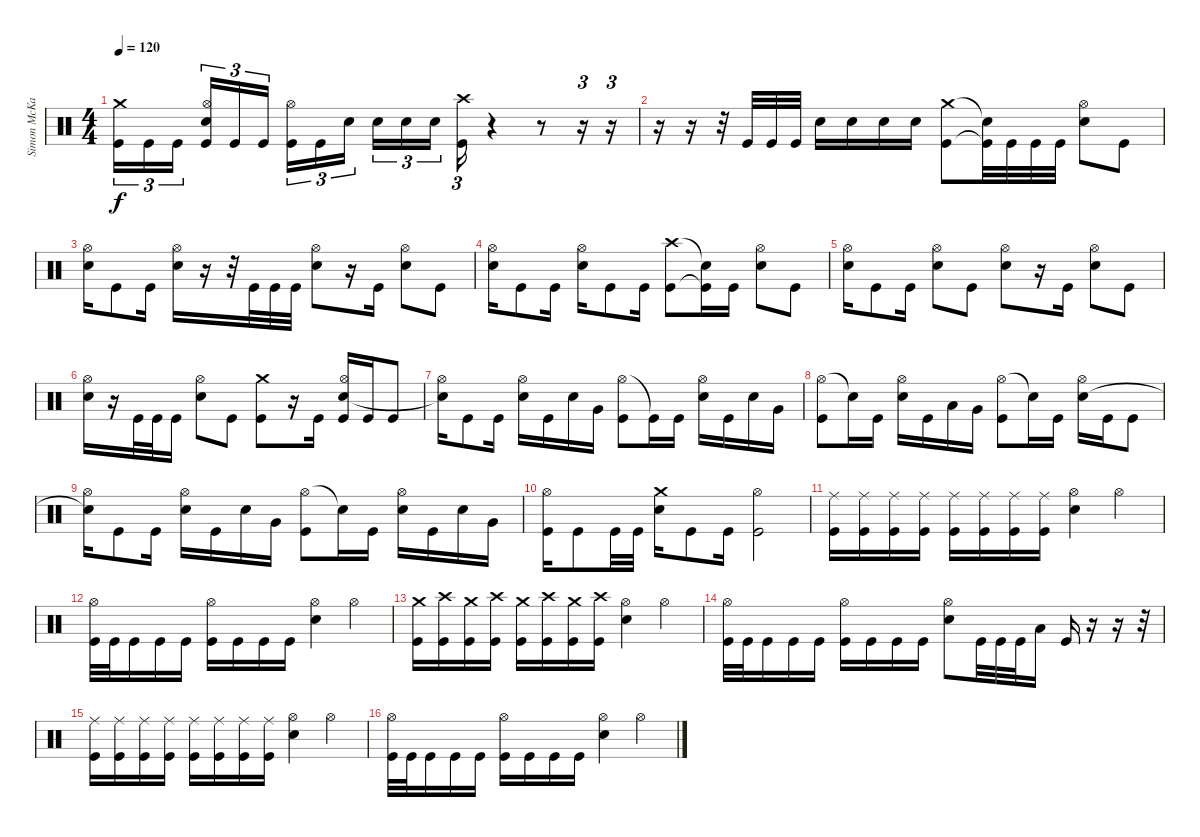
\track ("Simon McKay" "Simon McKa") {instrument percussion}
\staff {score}
\articulation defaults
\ts (4 4)
\tempo 120
\clef neutral
\ks c
("Crash medium (hit)" "Kick (hit)").16{tu (3 2) dy f} "Kick (hit)".16{tu (3 2)} "Kick (hit)".16{tu (3 2) beam splitsecondary} ("Hi-Hat (open)" "Electric Snare (hit)" "Kick (hit)").16{tu (3 2)} "Kick (hit)".16{tu (3 2)} "Kick (hit)".16{tu (3 2)} ("Hi-Hat (open)" "Kick (hit)").16{tu (3 2)} "Kick (hit)".16{tu (3 2)} "Electric Snare (hit)".16{tu (3 2) beam splitsecondary} "Electric Snare (hit)".16{tu (3 2)} "Electric Snare (hit)".16{tu (3 2)} "Electric Snare (hit)".16{tu (3 2)} ("Crash high (hit)" "Kick (hit)").16{tu (3 2)} r.4 r.8 r.16{tu (3 2)} r.16{tu (3 2)} |
r.16 r.16 r.32 "Kick (hit)".32 "Kick (hit)".32 "Kick (hit)".32 "Electric Snare (hit)".16 "Electric Snare (hit)".16 "Electric Snare (hit)".16 "Electric Snare (hit)".16 ("Crash medium (hit)" "Kick (hit)").8 ("Snare (hit)"{t} "Kick (hit)"{t}).32 "Kick (hit)".32 "Kick (hit)".32 "Kick (hit)".32 ("Hi-Hat (open)" "Electric Snare (hit)").8 "Kick (hit)".8 |
("Hi-Hat (open)" "Electric Snare (hit)").16 "Kick (hit)".8 "Kick (hit)".16 ("Hi-Hat (open)" "Electric Snare (hit)").16 r.16 r.32 "Kick (hit)".32 "Kick (hit)".32 "Kick (hit)".32 ("Hi-Hat (open)" "Electric Snare (hit)").8 r.16 "Kick (hit)".16 ("Hi-Hat (open)" "Electric Snare (hit)").8 "Kick (hit)".8 |
("Hi-Hat (open)" "Electric Snare (hit)").16 "Kick (hit)".8 "Kick (hit)".16 ("Hi-Hat (open)" "Electric Snare (hit)").16 "Kick (hit)".8 "Kick (hit)".16 ("Crash high (hit)" "Kick (hit)").8 ("Snare (hit)"{t} "Kick (hit)"{t}).16 "Kick (hit)".16 ("Hi-Hat (open)" "Electric Snare (hit)").8 "Kick (hit)".8 |
("Hi-Hat (open)" "Electric Snare (hit)").16 "Kick (hit)".8 "Kick (hit)".16 ("Hi-Hat (open)" "Electric Snare (hit)").8 "Kick (hit)".8 ("Hi-Hat (open)" "Electric Snare (hit)").8 r.16 "Kick (hit)".16 ("Hi-Hat (open)" "Electric Snare (hit)").8 "Kick (hit)".8 |
("Hi-Hat (open)" "Electric Snare (hit)").16 r.16 "Kick (hit)".32 "Kick (hit)".32 "Kick (hit)".16 ("Hi-Hat (open)" "Electric Snare (hit)").8 "Kick (hit)".8 ("Crash medium (hit)" "Kick (hit)").8 r.16 "Kick (hit)".16 ("Hi-Hat (open)" "Electric Snare (hit)" "Kick (hit)").16 "Kick (hit)".16 "Kick (hit)".8 |
("Hi-Hat (open)" "Snare (hit)"{t}).16 "Kick (hit)".8 "Kick (hit)".16 ("Hi-Hat (open)" "Electric Snare (hit)").16 "Kick (hit)".16 "Electric Snare (hit)".16 "Very Low Tom (hit)".16 ("Hi-Hat (open)" "Kick (hit)").8 "Kick (hit)"{t}.16 "Kick (hit)".16 ("Hi-Hat (open)" "Electric Snare (hit)").16 "Kick (hit)".16 "Electric Snare (hit)".16 "Very Low Tom (hit)".16 |
("Hi-Hat (open)" "Kick (hit)").8 "Snare (hit)"{t}.16 "Kick (hit)".16 ("Hi-Hat (open)" "Electric Snare (hit)").16 "Kick (hit)".16 "Low Tom (hit)".16 "Very Low Tom (hit)".16 ("Hi-Hat (open)" "Kick (hit)").8 "Snare (hit)"{t}.16 "Kick (hit)".16 ("Hi-Hat (open)" "Electric Snare (hit)").16 "Kick (hit)".16 "Kick (hit)".8 |
("Hi-Hat (open)" "Snare (hit)"{t}).16 "Kick (hit)".8 "Kick (hit)".16 ("Hi-Hat (open)" "Electric Snare (hit)").16 "Kick (hit)".16 "Electric Snare (hit)".16 "Very Low Tom (hit)".16 ("Hi-Hat (open)" "Kick (hit)").8 "Snare (hit)"{t}.16 "Kick (hit)".16 ("Hi-Hat (open)" "Electric Snare (hit)").16 "Kick (hit)".16 "Electric Snare (hit)".16 "Very Low Tom (hit)".16 |
("Hi-Hat (open)" "Kick (hit)").16 "Kick (hit)".8 "Kick (hit)".32 "Kick (hit)".32 ("Crash medium (hit)" "Electric Snare (hit)").16 "Kick (hit)".8 "Kick (hit)".16 ("Hi-Hat (open)" "Kick (hit)").2 |
("Ride (middle)" "Kick (hit)").16 ("Ride (middle)" "Kick (hit)").16 ("Ride (middle)" "Kick (hit)").16 ("Ride (middle)" "Kick (hit)").16 ("Ride (middle)" "Kick (hit)").16 ("Ride (middle)" "Kick (hit)").16 ("Ride (middle)" "Kick (hit)").16 ("Ride (middle)" "Kick (hit)").16 ("Hi-Hat (open)" "Electric Snare (hit)").4 "Hi-Hat (open)".4 |
("Hi-Hat (open)" "Kick (hit)").32 "Kick (hit)".32 "Kick (hit)".16 "Kick (hit)".16 "Kick (hit)".16 ("Hi-Hat (open)" "Kick (hit)").16 "Kick (hit)".16 "Kick (hit)".16 "Kick (hit)".16 ("Hi-Hat (open)" "Electric Snare (hit)").4 "Hi-Hat (open)".4 |
("Crash medium (hit)" "Kick (hit)").16 ("Crash high (hit)" "Kick (hit)").16 ("Crash medium (hit)" "Kick (hit)").16 ("Crash high (hit)" "Kick (hit)").16 ("Crash medium (hit)" "Kick (hit)").16 ("Crash high (hit)" "Kick (hit)").16 ("Crash medium (hit)" "Kick (hit)").16 ("Crash high (hit)" "Kick (hit)").16 ("Hi-Hat (open)" "Electric Snare (hit)").4 "Hi-Hat (open)".4 |
("Hi-Hat (open)" "Kick (hit)").32 "Kick (hit)".32 "Kick (hit)".16 "Kick (hit)".16 "Kick (hit)".16 ("Hi-Hat (open)" "Kick (hit)").16 "Kick (hit)".16 "Kick (hit)".16 "Kick (hit)".16 ("Hi-Hat (open)" "Electric Snare (hit)").8 "Kick (hit)".32 "Kick (hit)".32 "Kick (hit)".32 "Low Floor Tom (hit)".16 "Kick (hit)".16 r.16 r.16 r.32 |
("Ride (middle)" "Kick (hit)").16 ("Ride (middle)" "Kick (hit)").16 ("Ride (middle)" "Kick (hit)").16 ("Ride (middle)" "Kick (hit)").16 ("Ride (middle)" "Kick (hit)").16 ("Ride (middle)" "Kick (hit)").16 ("Ride (middle)" "Kick (hit)").16 ("Ride (middle)" "Kick (hit)").16 ("Hi-Hat (open)" "Electric Snare (hit)").4 "Hi-Hat (open)".4 |
("Hi-Hat (open)" "Kick (hit)").32 "Kick (hit)".32 "Kick (hit)".16 "Kick (hit)".16 "Kick (hit)".16 ("Hi-Hat (open)" "Kick (hit)").16 "Kick (hit)".16 "Kick (hit)".16 "Kick (hit)".16 ("Hi-Hat (open)" "Electric Snare (hit)").4 "Hi-Hat (open)".4
